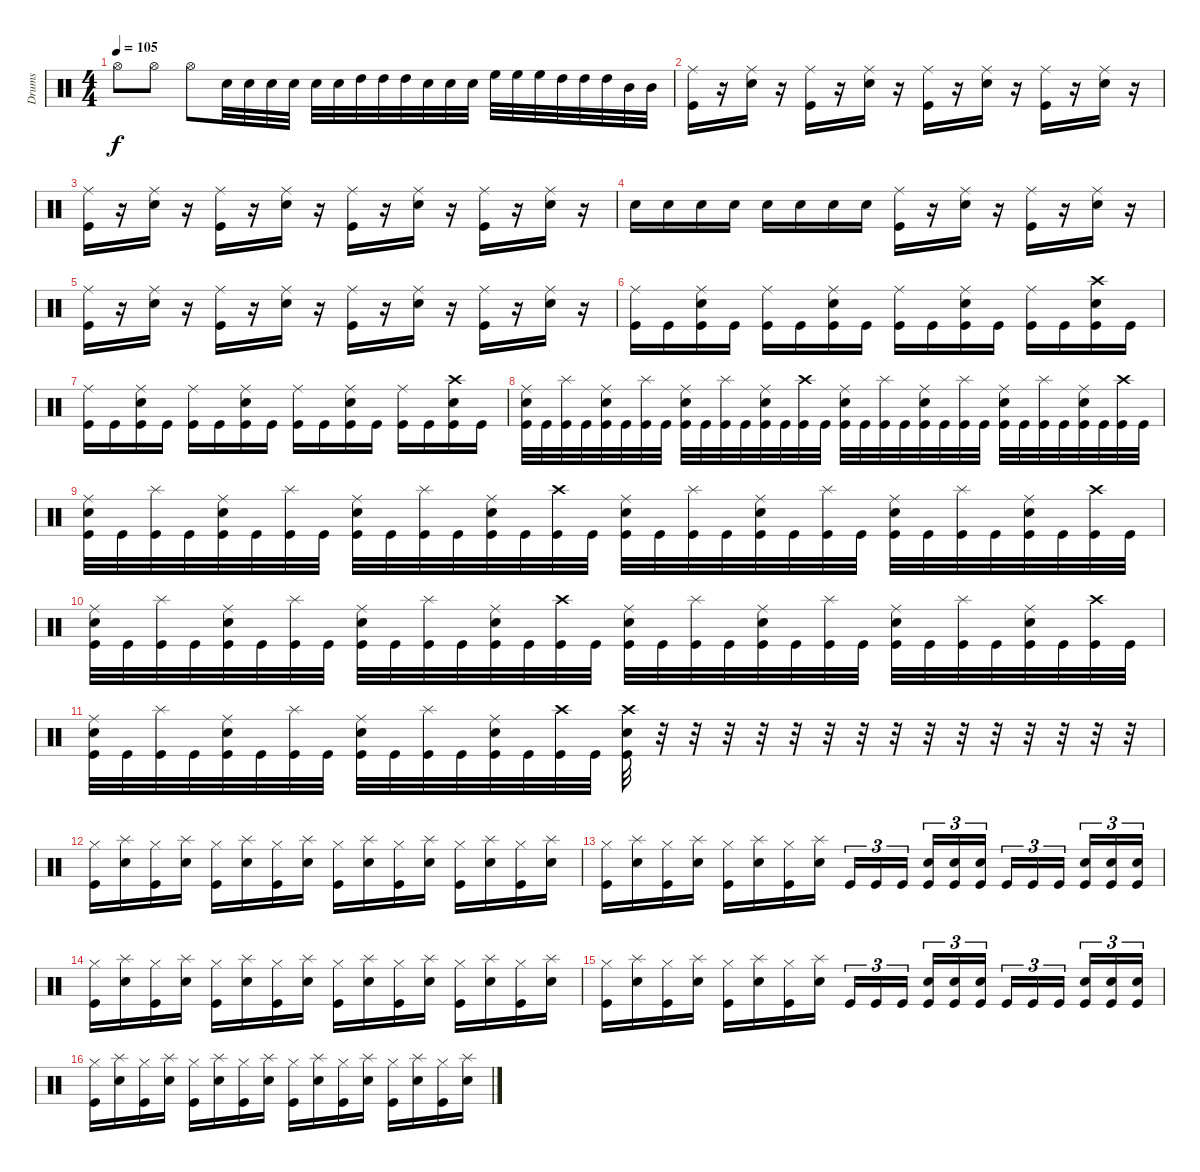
\track ("Drums" "Drums") {instrument percussion}
\staff {score}
\articulation defaults
\ts (4 4)
\tempo 105
\clef neutral
\ks c "Hi-Hat (open)".8{dy f} "Hi-Hat (open)".8 "Hi-Hat (open)".8 "Snare (hit) 2".32 "Snare (hit) 2".32 "Snare (hit) 2".32 "Snare (hit) 2".32 "Snare (hit) 2".32 "Snare (hit) 2".32 "High Tom (hit)".32 "High Tom (hit)".32 "High Tom (hit)".32 "Snare (hit) 2".32 "Snare (hit) 2".32 "Snare (hit) 2".32 "High Floor Tom (hit)".32 "High Floor Tom (hit)".32 "High Floor Tom (hit)".32 "High Tom (hit)".32 "High Tom (hit)".32 "High Tom (hit)".32 "Mid Tom (hit)".32 "Mid Tom (hit)".32
|
("Ride (middle)" "Kick (hit)").16 r.16 ("Ride (middle)" "Snare (hit) 2").16 r.16 ("Ride (middle)" "Kick (hit)").16 r.16 ("Ride (middle)" "Snare (hit) 2").16 r.16 ("Ride (middle)" "Kick (hit)").16 r.16 ("Ride (middle)" "Snare (hit) 2").16 r.16 ("Ride (middle)" "Kick (hit)").16 r.16 ("Ride (middle)" "Snare (hit) 2").16 r.16 |
("Ride (middle)" "Kick (hit)").16 r.16 ("Ride (middle)" "Snare (hit) 2").16 r.16 ("Ride (middle)" "Kick (hit)").16 r.16 ("Ride (middle)" "Snare (hit) 2").16 r.16 ("Ride (middle)" "Kick (hit)").16 r.16 ("Ride (middle)" "Snare (hit) 2").16 r.16 ("Ride (middle)" "Kick (hit)").16 r.16 ("Ride (middle)" "Snare (hit) 2").16 r.16 |
"Electric Snare (hit)".16 "Electric Snare (hit)".16 "Snare (hit) 2".16 "Snare (hit) 2".16 "Snare (hit) 2".16 "Snare (hit) 2".16 "Snare (hit) 2".16 "Electric Snare (hit)".16 ("Ride (middle)" "Kick (hit)").16 r.16 ("Ride (middle)" "Snare (hit) 2").16 r.16 ("Ride (middle)" "Kick (hit)").16 r.16 ("Ride (middle)" "Snare (hit) 2").16 r.16 |
("Ride (middle)" "Kick (hit)").16 r.16 ("Ride (middle)" "Snare (hit) 2").16 r.16 ("Ride (middle)" "Kick (hit)").16 r.16 ("Ride (middle)" "Snare (hit) 2").16 r.16 ("Ride (middle)" "Kick (hit)").16 r.16 ("Ride (middle)" "Snare (hit) 2").16 r.16 ("Ride (middle)" "Kick (hit)").16 r.16 ("Ride (middle)" "Snare (hit) 2").16 r.16 |
("Ride (middle)" "Kick (hit)").16 "Kick (hit)".16 ("Ride (middle)" "Snare (hit) 2" "Kick (hit)").16 "Kick (hit)".16 ("Ride (middle)" "Kick (hit)").16 "Kick (hit)".16 ("Ride (middle)" "Snare (hit) 2" "Kick (hit)").16 "Kick (hit)".16 ("Ride (middle)" "Kick (hit)").16 "Kick (hit)".16 ("Ride (middle)" "Snare (hit) 2" "Kick (hit)").16 "Kick (hit)".16 ("Ride (middle)" "Kick (hit)").16 "Kick (hit)".16 ("Crash high (hit)" "Snare (hit) 2" "Kick (hit)").16 "Kick (hit)".16 |
("Ride (middle)" "Kick (hit)").16 "Kick (hit)".16 ("Ride (middle)" "Snare (hit) 2" "Kick (hit)").16 "Kick (hit)".16 ("Ride (middle)" "Kick (hit)").16 "Kick (hit)".16 ("Ride (middle)" "Snare (hit) 2" "Kick (hit)").16 "Kick (hit)".16 ("Ride (middle)" "Kick (hit)").16 "Kick (hit)".16 ("Ride (middle)" "Snare (hit) 2" "Kick (hit)").16 "Kick (hit)".16 ("Ride (middle)" "Kick (hit)").16 "Kick (hit)".16 ("Crash high (hit)" "Snare (hit) 2" "Kick (hit)").16 "Kick (hit)".16 |
("Ride (middle)" "Snare (hit) 2" "Kick (hit)").32 "Kick (hit)".32 ("Splash (hit)" "Kick (hit)").32 "Kick (hit)".32 ("Ride (middle)" "Snare (hit) 2" "Kick (hit)").32 "Kick (hit)".32 ("Splash (hit)" "Kick (hit)").32 "Kick (hit)".32 ("Ride (middle)" "Snare (hit) 2" "Kick (hit)").32 "Kick (hit)".32 ("Splash (hit)" "Kick (hit)").32 "Kick (hit)".32 ("Ride (middle)" "Snare (hit) 2" "Kick (hit)").32 "Kick (hit)".32 ("Crash high (hit)" "Kick (hit)").32 "Kick (hit)".32 ("Ride (middle)" "Snare (hit) 2" "Kick (hit)").32 "Kick (hit)".32 ("Splash (hit)" "Kick (hit)").32 "Kick (hit)".32 ("Ride (middle)" "Snare (hit) 2" "Kick (hit)").32 "Kick (hit)".32 ("Splash (hit)" "Kick (hit)").32 "Kick (hit)".32 ("Ride (middle)" "Snare (hit) 2" "Kick (hit)").32 "Kick (hit)".32 ("Splash (hit)" "Kick (hit)").32 "Kick (hit)".32 ("Ride (middle)" "Snare (hit) 2" "Kick (hit)").32 "Kick (hit)".32 ("Crash high (hit)" "Kick (hit)").32 "Kick (hit)".32 |
("Ride (middle)" "Snare (hit) 2" "Kick (hit)").32 "Kick (hit)".32 ("Splash (hit)" "Kick (hit)").32 "Kick (hit)".32 ("Ride (middle)" "Snare (hit) 2" "Kick (hit)").32 "Kick (hit)".32 ("Splash (hit)" "Kick (hit)").32 "Kick (hit)".32 ("Ride (middle)" "Snare (hit) 2" "Kick (hit)").32 "Kick (hit)".32 ("Splash (hit)" "Kick (hit)").32 "Kick (hit)".32 ("Ride (middle)" "Snare (hit) 2" "Kick (hit)").32 "Kick (hit)".32 ("Crash high (hit)" "Kick (hit)").32 "Kick (hit)".32 ("Ride (middle)" "Snare (hit) 2" "Kick (hit)").32 "Kick (hit)".32 ("Splash (hit)" "Kick (hit)").32 "Kick (hit)".32 ("Ride (middle)" "Snare (hit) 2" "Kick (hit)").32 "Kick (hit)".32 ("Splash (hit)" "Kick (hit)").32 "Kick (hit)".32 ("Ride (middle)" "Snare (hit) 2" "Kick (hit)").32 "Kick (hit)".32 ("Splash (hit)" "Kick (hit)").32 "Kick (hit)".32 ("Ride (middle)" "Snare (hit) 2" "Kick (hit)").32 "Kick (hit)".32 ("Crash high (hit)" "Kick (hit)").32 "Kick (hit)".32 |
("Ride (middle)" "Snare (hit) 2" "Kick (hit)").32 "Kick (hit)".32 ("Splash (hit)" "Kick (hit)").32 "Kick (hit)".32 ("Ride (middle)" "Snare (hit) 2" "Kick (hit)").32 "Kick (hit)".32 ("Splash (hit)" "Kick (hit)").32 "Kick (hit)".32 ("Ride (middle)" "Snare (hit) 2" "Kick (hit)").32 "Kick (hit)".32 ("Splash (hit)" "Kick (hit)").32 "Kick (hit)".32 ("Ride (middle)" "Snare (hit) 2" "Kick (hit)").32 "Kick (hit)".32 ("Crash high (hit)" "Kick (hit)").32 "Kick (hit)".32 ("Ride (middle)" "Snare (hit) 2" "Kick (hit)").32 "Kick (hit)".32 ("Splash (hit)" "Kick (hit)").32 "Kick (hit)".32 ("Ride (middle)" "Snare (hit) 2" "Kick (hit)").32 "Kick (hit)".32 ("Splash (hit)" "Kick (hit)").32 "Kick (hit)".32 ("Ride (middle)" "Snare (hit) 2" "Kick (hit)").32 "Kick (hit)".32 ("Splash (hit)" "Kick (hit)").32 "Kick (hit)".32 ("Ride (middle)" "Snare (hit) 2" "Kick (hit)").32 "Kick (hit)".32 ("Crash high (hit)" "Kick (hit)").32 "Kick (hit)".32 |
("Ride (middle)" "Snare (hit) 2" "Kick (hit)").32 "Kick (hit)".32 ("Splash (hit)" "Kick (hit)").32 "Kick (hit)".32 ("Ride (middle)" "Snare (hit) 2" "Kick (hit)").32 "Kick (hit)".32 ("Splash (hit)" "Kick (hit)").32 "Kick (hit)".32 ("Ride (middle)" "Snare (hit) 2" "Kick (hit)").32 "Kick (hit)".32 ("Splash (hit)" "Kick (hit)").32 "Kick (hit)".32 ("Ride (middle)" "Snare (hit) 2" "Kick (hit)").32 "Kick (hit)".32 ("Crash high (hit)" "Kick (hit)").32 "Kick (hit)".32 ("Crash high (hit)" "Snare (hit) 2" "Kick (hit)").32 r.32 r.32 r.32 r.32 r.32 r.32 r.32 r.32 r.32 r.32 r.32 r.32 r.32 r.32 r.32 |
("Hi-Hat (closed)" "Kick (hit)").16 ("Splash (hit)" "Snare (hit) 2").16 ("Hi-Hat (closed)" "Kick (hit)").16 ("Splash (hit)" "Snare (hit) 2").16 ("Hi-Hat (closed)" "Kick (hit)").16 ("Splash (hit)" "Snare (hit) 2").16 ("Hi-Hat (closed)" "Kick (hit)").16 ("Splash (hit)" "Snare (hit) 2").16 ("Hi-Hat (closed)" "Kick (hit)").16 ("Splash (hit)" "Snare (hit) 2").16 ("Hi-Hat (closed)" "Kick (hit)").16 ("Splash (hit)" "Snare (hit) 2").16 ("Hi-Hat (closed)" "Kick (hit)").16 ("Splash (hit)" "Snare (hit) 2").16 ("Hi-Hat (closed)" "Kick (hit)").16 ("Splash (hit)" "Snare (hit) 2").16 |
("Hi-Hat (closed)" "Kick (hit)").16 ("Splash (hit)" "Snare (hit) 2").16 ("Hi-Hat (closed)" "Kick (hit)").16 ("Splash (hit)" "Snare (hit) 2").16 ("Hi-Hat (closed)" "Kick (hit)").16 ("Splash (hit)" "Snare (hit) 2").16 ("Hi-Hat (closed)" "Kick (hit)").16 ("Splash (hit)" "Snare (hit) 2").16 "Kick (hit)".16{tu (3 2)} "Kick (hit)".16{tu (3 2)} "Kick (hit)".16{tu (3 2)} ("Snare (hit) 2" "Kick (hit)").16{tu (3 2)} ("Snare (hit) 2" "Kick (hit)").16{tu (3 2)} ("Snare (hit) 2" "Kick (hit)").16{tu (3 2)} "Kick (hit)".16{tu (3 2)} "Kick (hit)".16{tu (3 2)} "Kick (hit)".16{tu (3 2)} ("Snare (hit) 2" "Kick (hit)").16{tu (3 2)} ("Snare (hit) 2" "Kick (hit)").16{tu (3 2)} ("Snare (hit) 2" "Kick (hit)").16{tu (3 2)} |
("Hi-Hat (closed)" "Kick (hit)").16 ("Splash (hit)" "Snare (hit) 2").16 ("Hi-Hat (closed)" "Kick (hit)").16 ("Splash (hit)" "Snare (hit) 2").16 ("Hi-Hat (closed)" "Kick (hit)").16 ("Splash (hit)" "Snare (hit) 2").16 ("Hi-Hat (closed)" "Kick (hit)").16 ("Splash (hit)" "Snare (hit) 2").16 ("Hi-Hat (closed)" "Kick (hit)").16 ("Splash (hit)" "Snare (hit) 2").16 ("Hi-Hat (closed)" "Kick (hit)").16 ("Splash (hit)" "Snare (hit) 2").16 ("Hi-Hat (closed)" "Kick (hit)").16 ("Splash (hit)" "Snare (hit) 2").16 ("Hi-Hat (closed)" "Kick (hit)").16 ("Splash (hit)" "Snare (hit) 2").16 |
("Hi-Hat (closed)" "Kick (hit)").16 ("Splash (hit)" "Snare (hit) 2").16 ("Hi-Hat (closed)" "Kick (hit)").16 ("Splash (hit)" "Snare (hit) 2").16 ("Hi-Hat (closed)" "Kick (hit)").16 ("Splash (hit)" "Snare (hit) 2").16 ("Hi-Hat (closed)" "Kick (hit)").16 ("Splash (hit)" "Snare (hit) 2").16 "Kick (hit)".16{tu (3 2)} "Kick (hit)".16{tu (3 2)} "Kick (hit)".16{tu (3 2)} ("Snare (hit) 2" "Kick (hit)").16{tu (3 2)} ("Snare (hit) 2" "Kick (hit)").16{tu (3 2)} ("Snare (hit) 2" "Kick (hit)").16{tu (3 2)} "Kick (hit)".16{tu (3 2)} "Kick (hit)".16{tu (3 2)} "Kick (hit)".16{tu (3 2)} ("Snare (hit) 2" "Kick (hit)").16{tu (3 2)} ("Snare (hit) 2" "Kick (hit)").16{tu (3 2)} ("Snare (hit) 2" "Kick (hit)").16{tu (3 2)} |
("Hi-Hat (closed)" "Kick (hit)").16 ("Splash (hit)" "Snare (hit) 2").16 ("Hi-Hat (closed)" "Kick (hit)").16 ("Splash (hit)" "Snare (hit) 2").16 ("Hi-Hat (closed)" "Kick (hit)").16 ("Splash (hit)" "Snare (hit) 2").16 ("Hi-Hat (closed)" "Kick (hit)").16 ("Splash (hit)" "Snare (hit) 2").16 ("Hi-Hat (closed)" "Kick (hit)").16 ("Splash (hit)" "Snare (hit) 2").16 ("Hi-Hat (closed)" "Kick (hit)").16 ("Splash (hit)" "Snare (hit) 2").16 ("Hi-Hat (closed)" "Kick (hit)").16 ("Splash (hit)" "Snare (hit) 2").16 ("Hi-Hat (closed)" "Kick (hit)").16 ("Splash (hit)" "Snare (hit) 2").16
